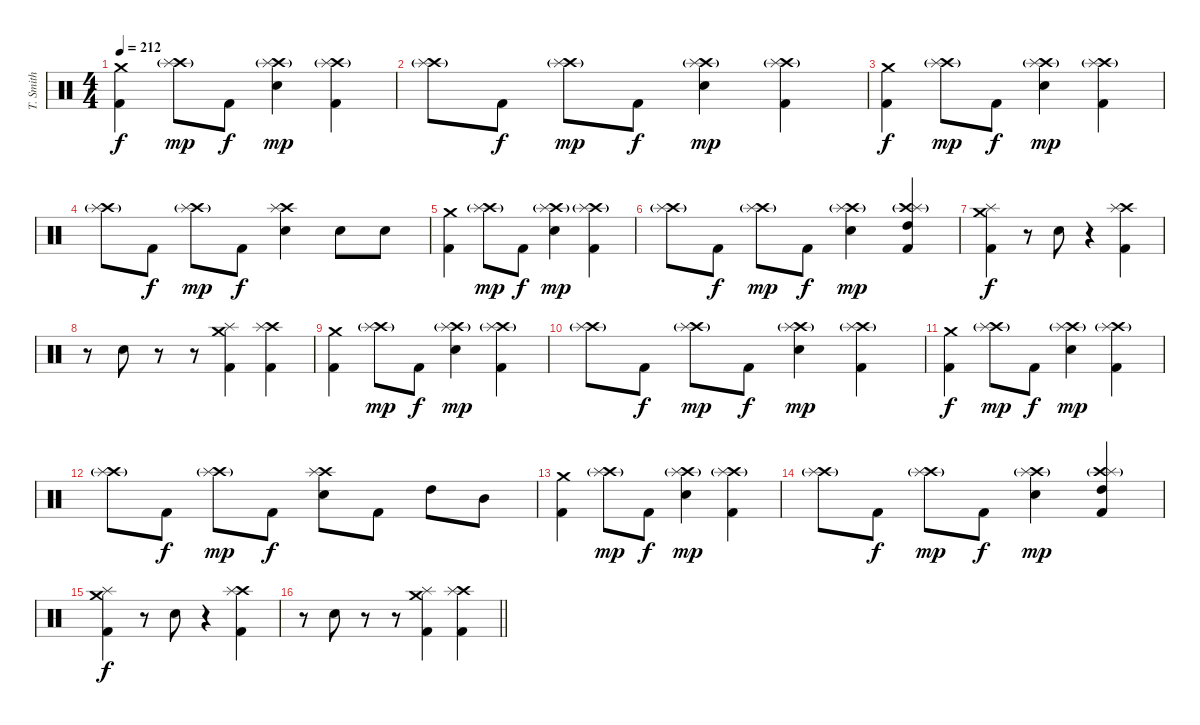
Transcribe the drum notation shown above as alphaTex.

\track ("T. Smith" "T. Smith") {instrument percussion}
\staff {score}
\articulation defaults
\ts (4 4)
\tempo 212
\clef neutral
\ks c
("Crash medium (hit)" "Kick (hit) 2").4{dy f} ("Crash high (hit)"{g} "Splash (hit)").8{dy mp} "Kick (hit) 2".8{dy f} ("Crash high (hit)"{g} "Splash (hit)" "Electric Snare (hit)").4{dy mp} ("Crash high (hit)"{g} "Splash (hit)" "Kick (hit) 2").4 |
("Crash high (hit)"{g} "Splash (hit)").8 "Kick (hit) 2".8{dy f} ("Crash high (hit)"{g} "Splash (hit)").8{dy mp} "Kick (hit) 2".8{dy f} ("Crash high (hit)"{g} "Splash (hit)" "Electric Snare (hit)").4{dy mp} ("Crash high (hit)"{g} "Splash (hit)" "Kick (hit) 2").4 |
("Crash medium (hit)" "Kick (hit) 2").4{dy f} ("Crash high (hit)"{g} "Splash (hit)").8{dy mp} "Kick (hit) 2".8{dy f} ("Crash high (hit)"{g} "Splash (hit)" "Electric Snare (hit)").4{dy mp} ("Crash high (hit)"{g} "Splash (hit)" "Kick (hit) 2").4 |
("Crash high (hit)"{g} "Splash (hit)").8 "Kick (hit) 2".8{dy f} ("Crash high (hit)"{g} "Splash (hit)").8{dy mp} "Kick (hit) 2".8{dy f} ("Crash high (hit)" "Splash (hit)" "Electric Snare (hit)").4 "Electric Snare (hit)".8 "Electric Snare (hit)".8 |
("Crash medium (hit)" "Kick (hit) 2").4 ("Crash high (hit)"{g} "Splash (hit)").8{dy mp} "Kick (hit) 2".8{dy f} ("Crash high (hit)"{g} "Splash (hit)" "Electric Snare (hit)").4{dy mp} ("Crash high (hit)"{g} "Splash (hit)" "Kick (hit) 2").4 |
("Crash high (hit)"{g} "Splash (hit)").8 "Kick (hit) 2".8{dy f} ("Crash high (hit)"{g} "Splash (hit)").8{dy mp} "Kick (hit) 2".8{dy f} ("Crash high (hit)"{g} "Splash (hit)" "Electric Snare (hit)").4{dy mp} ("Crash high (hit)"{g} "Splash (hit)" "High Tom (hit)" "Kick (hit) 2").4 |
("Crash medium (hit)" "Splash (hit)" "Kick (hit) 2").4{dy f} r.8 "Electric Snare (hit)".8 r.4 ("Crash high (hit)" "Splash (hit)" "Kick (hit) 2").4 |
r.8 "Electric Snare (hit)".8 r.8 r.8 ("Crash medium (hit)" "Splash (hit)" "Kick (hit) 2").4 ("Crash high (hit)" "Splash (hit)" "Kick (hit) 2").4 |
("Crash medium (hit)" "Kick (hit) 2").4 ("Crash high (hit)"{g} "Splash (hit)").8{dy mp} "Kick (hit) 2".8{dy f} ("Crash high (hit)"{g} "Splash (hit)" "Electric Snare (hit)").4{dy mp} ("Crash high (hit)"{g} "Splash (hit)" "Kick (hit) 2").4 |
("Crash high (hit)"{g} "Splash (hit)").8 "Kick (hit) 2".8{dy f} ("Crash high (hit)"{g} "Splash (hit)").8{dy mp} "Kick (hit) 2".8{dy f} ("Crash high (hit)"{g} "Splash (hit)" "Electric Snare (hit)").4{dy mp} ("Crash high (hit)"{g} "Splash (hit)" "Kick (hit) 2").4 |
("Crash medium (hit)" "Kick (hit) 2").4{dy f} ("Crash high (hit)"{g} "Splash (hit)").8{dy mp} "Kick (hit) 2".8{dy f} ("Crash high (hit)"{g} "Splash (hit)" "Electric Snare (hit)").4{dy mp} ("Crash high (hit)"{g} "Splash (hit)" "Kick (hit) 2").4 |
("Crash high (hit)"{g} "Splash (hit)").8 "Kick (hit) 2".8{dy f} ("Crash high (hit)"{g} "Splash (hit)").8{dy mp} "Kick (hit) 2".8{dy f} ("Crash high (hit)" "Splash (hit)" "Electric Snare (hit)").8 "Kick (hit) 2".8 "High Tom (hit)".8 "Mid Tom (hit)".8 |
("Crash medium (hit)" "Kick (hit) 2").4 ("Crash high (hit)"{g} "Splash (hit)").8{dy mp} "Kick (hit) 2".8{dy f} ("Crash high (hit)"{g} "Splash (hit)" "Electric Snare (hit)").4{dy mp} ("Crash high (hit)"{g} "Splash (hit)" "Kick (hit) 2").4 |
("Crash high (hit)"{g} "Splash (hit)").8 "Kick (hit) 2".8{dy f} ("Crash high (hit)"{g} "Splash (hit)").8{dy mp} "Kick (hit) 2".8{dy f} ("Crash high (hit)"{g} "Splash (hit)" "Electric Snare (hit)").4{dy mp} ("Crash high (hit)"{g} "Splash (hit)" "High Tom (hit)" "Kick (hit) 2").4 |
("Crash medium (hit)" "Splash (hit)" "Kick (hit) 2").4{dy f} r.8 "Electric Snare (hit)".8 r.4 ("Crash high (hit)" "Splash (hit)" "Kick (hit) 2").4 |
\barLineRight lightlight
r.8 "Electric Snare (hit)".8 r.8 r.8 ("Crash medium (hit)" "Splash (hit)" "Kick (hit) 2").4 ("Crash high (hit)" "Splash (hit)" "Kick (hit) 2").4
